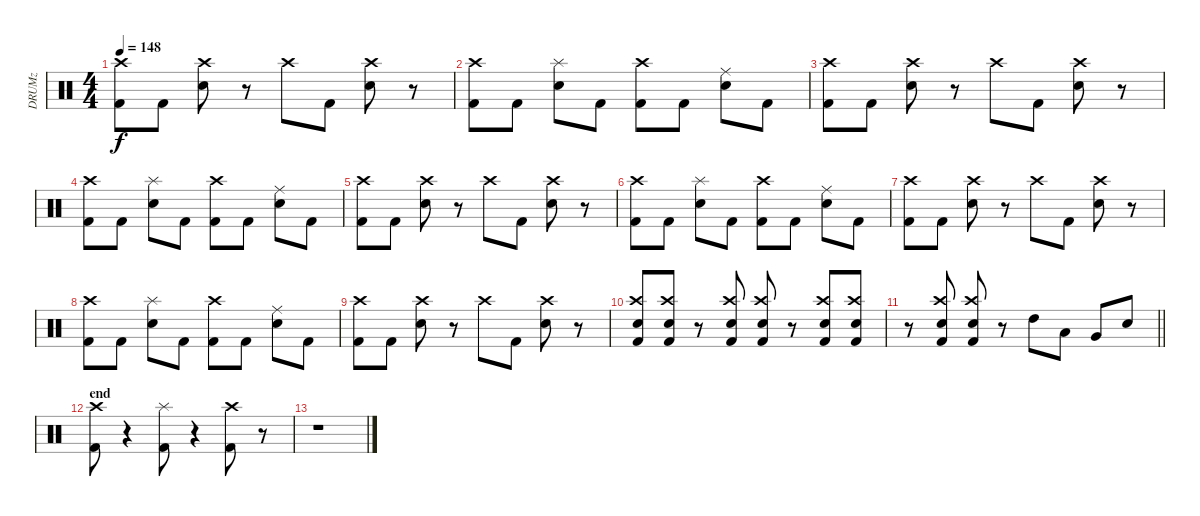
\track ("DRUMz" "DRUMz") {instrument percussion}
\staff {score}
\articulation defaults
\ts (4 4)
\tempo 148
\clef neutral
\ks c
("Kick (hit) 2" "Crash high (hit)").8{dy f} "Kick (hit) 2".8 ("Crash high (hit)" "Snare (hit) 2").8 r.8 "Crash high (hit)".8 "Kick (hit) 2".8 ("Crash high (hit)" "Snare (hit) 2").8 r.8 |
("Crash high (hit)" "Kick (hit) 2").8 "Kick (hit) 2".8 ("Splash (hit)" "Snare (hit) 2").8 "Kick (hit) 2".8 ("Crash high (hit)" "Kick (hit) 2").8 "Kick (hit) 2".8 ("Ride (middle)" "Snare (hit) 2").8 "Kick (hit) 2".8 |
("Kick (hit) 2" "Crash high (hit)").8 "Kick (hit) 2".8 ("Crash high (hit)" "Snare (hit) 2").8 r.8 "Crash high (hit)".8 "Kick (hit) 2".8 ("Crash high (hit)" "Snare (hit) 2").8 r.8 |
("Crash high (hit)" "Kick (hit) 2").8 "Kick (hit) 2".8 ("Splash (hit)" "Snare (hit) 2").8 "Kick (hit) 2".8 ("Crash high (hit)" "Kick (hit) 2").8 "Kick (hit) 2".8 ("Ride (middle)" "Snare (hit) 2").8 "Kick (hit) 2".8 |
("Kick (hit) 2" "Crash high (hit)").8 "Kick (hit) 2".8 ("Crash high (hit)" "Snare (hit) 2").8 r.8 "Crash high (hit)".8 "Kick (hit) 2".8 ("Crash high (hit)" "Snare (hit) 2").8 r.8 |
("Crash high (hit)" "Kick (hit) 2").8 "Kick (hit) 2".8 ("Splash (hit)" "Snare (hit) 2").8 "Kick (hit) 2".8 ("Crash high (hit)" "Kick (hit) 2").8 "Kick (hit) 2".8 ("Ride (middle)" "Snare (hit) 2").8 "Kick (hit) 2".8 |
("Kick (hit) 2" "Crash high (hit)").8 "Kick (hit) 2".8 ("Crash high (hit)" "Snare (hit) 2").8 r.8 "Crash high (hit)".8 "Kick (hit) 2".8 ("Crash high (hit)" "Snare (hit) 2").8 r.8 |
("Crash high (hit)" "Kick (hit) 2").8 "Kick (hit) 2".8 ("Splash (hit)" "Snare (hit) 2").8 "Kick (hit) 2".8 ("Crash high (hit)" "Kick (hit) 2").8 "Kick (hit) 2".8 ("Ride (middle)" "Snare (hit) 2").8 "Kick (hit) 2".8 |
("Kick (hit) 2" "Crash high (hit)").8 "Kick (hit) 2".8 ("Crash high (hit)" "Snare (hit) 2").8 r.8 "Crash high (hit)".8 "Kick (hit) 2".8 ("Crash high (hit)" "Snare (hit) 2").8 r.8 |
("Snare (hit) 2" "Crash high (hit)" "Kick (hit) 2").8 ("Snare (hit) 2" "Crash high (hit)" "Kick (hit) 2").8 r.8 ("Snare (hit) 2" "Crash high (hit)" "Kick (hit) 2").8 ("Crash high (hit)" "Snare (hit) 2" "Kick (hit) 2").8 r.8 ("Kick (hit) 2" "Crash high (hit)" "Snare (hit) 2").8 ("Kick (hit) 2" "Snare (hit) 2" "Crash high (hit)").8 |
\barLineRight lightlight
r.8 ("Kick (hit) 2" "Crash high (hit)" "Snare (hit) 2").8 ("Crash high (hit)" "Snare (hit) 2" "Kick (hit) 2").8 r.8 "High Tom (hit)".8 "Low Tom (hit)".8 "Very Low Tom (hit)".8 "Snare (hit) 2".8 |
\section ("" "end")
("Crash high (hit)" "Kick (hit) 2").8 r.4 ("Kick (hit) 2" "Splash (hit)").8 r.4 ("Crash high (hit)" "Kick (hit) 2").8 r.8 |
r.1
